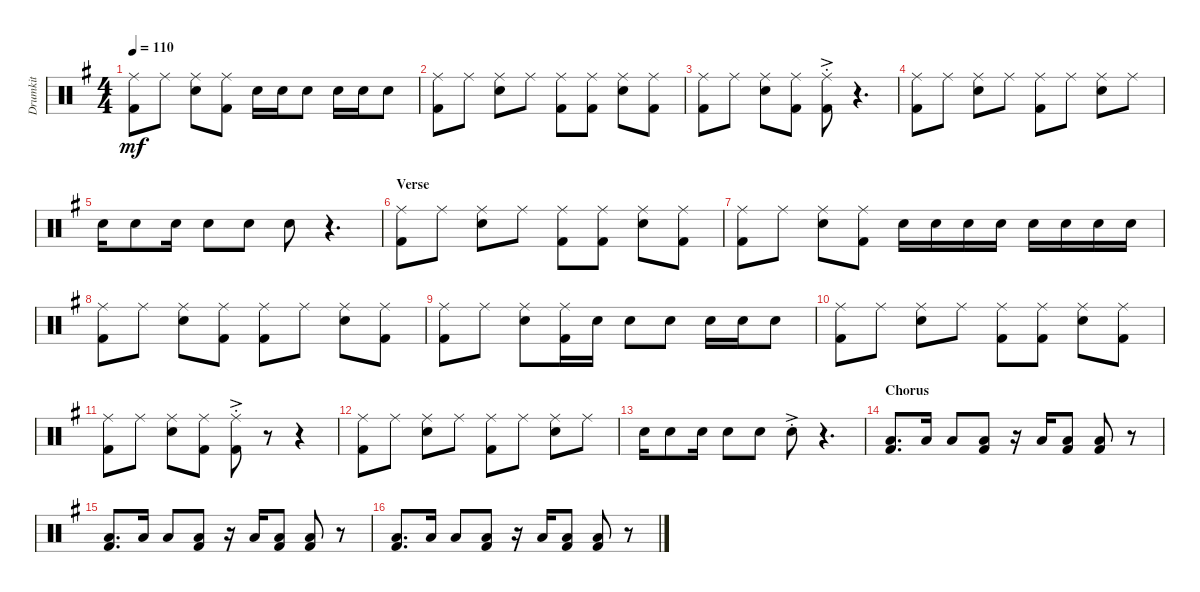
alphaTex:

\track ("Drumkit" "Drumkit") {instrument percussion}
\staff {score}
\articulation defaults
\ts (4 4)
\tempo 110
\clef neutral
\ks g
("Kick (hit) 2" "Ride (middle)").8{dy mf} "Ride (middle)".8 ("Snare (hit) 2" "Ride (middle)").8 ("Ride (middle)" "Kick (hit) 2").8 "Snare (hit) 2".16 "Snare (hit) 2".16 "Snare (hit) 2".8 "Snare (hit) 2".16 "Snare (hit) 2".16 "Snare (hit) 2".8 |
("Kick (hit) 2" "Ride (middle)").8 "Ride (middle)".8 ("Snare (hit) 2" "Ride (middle)").8 "Ride (middle)".8 ("Kick (hit) 2" "Ride (middle)").8 ("Kick (hit) 2" "Ride (middle)").8 ("Snare (hit) 2" "Ride (middle)").8 ("Ride (middle)" "Kick (hit) 2").8 |
("Kick (hit) 2" "Ride (middle)").8 "Ride (middle)".8 ("Snare (hit) 2" "Ride (middle)").8 ("Ride (middle)" "Kick (hit) 2").8 ("Kick (hit) 2"{ac st} "Ride (middle)").8 r.4{d} |
("Kick (hit) 2" "Ride (middle)").8 "Ride (middle)".8 ("Snare (hit) 2" "Ride (middle)").8 "Ride (middle)".8 ("Kick (hit) 2" "Ride (middle)").8 "Ride (middle)".8 ("Snare (hit) 2" "Ride (middle)").8 "Ride (middle)".8 |
"Snare (hit) 2".16 "Snare (hit) 2".8 "Snare (hit) 2".16 "Snare (hit) 2".8 "Snare (hit) 2".8 "Snare (hit) 2".8 r.4{d} |
\section ("" "Verse")
("Kick (hit) 2" "Ride (middle)").8 "Ride (middle)".8 ("Snare (hit) 2" "Ride (middle)").8 "Ride (middle)".8 ("Kick (hit) 2" "Ride (middle)").8 ("Kick (hit) 2" "Ride (middle)").8 ("Snare (hit) 2" "Ride (middle)").8 ("Ride (middle)" "Kick (hit) 2").8 |
("Kick (hit) 2" "Ride (middle)").8 "Ride (middle)".8 ("Snare (hit) 2" "Ride (middle)").8 ("Ride (middle)" "Kick (hit) 2").8 "Snare (hit) 2".16 "Snare (hit) 2".16 "Snare (hit) 2".16 "Snare (hit) 2".16 "Snare (hit) 2".16 "Snare (hit) 2".16 "Snare (hit) 2".16 "Snare (hit) 2".16 |
("Kick (hit) 2" "Ride (middle)").8 "Ride (middle)".8 ("Snare (hit) 2" "Ride (middle)").8 ("Ride (middle)" "Kick (hit) 2").8 ("Kick (hit) 2" "Ride (middle)").8 "Ride (middle)".8 ("Snare (hit) 2" "Ride (middle)").8 ("Kick (hit) 2" "Ride (middle)").8 |
("Kick (hit) 2" "Ride (middle)").8 "Ride (middle)".8 ("Snare (hit) 2" "Ride (middle)").8 ("Ride (middle)" "Kick (hit) 2").16 "Snare (hit) 2".16 "Snare (hit) 2".8 "Snare (hit) 2".8 "Snare (hit) 2".16 "Snare (hit) 2".16 "Snare (hit) 2".8 |
("Kick (hit) 2" "Ride (middle)").8 "Ride (middle)".8 ("Snare (hit) 2" "Ride (middle)").8 "Ride (middle)".8 ("Kick (hit) 2" "Ride (middle)").8 ("Kick (hit) 2" "Ride (middle)").8 ("Snare (hit) 2" "Ride (middle)").8 ("Ride (middle)" "Kick (hit) 2").8 |
("Kick (hit) 2" "Ride (middle)").8 "Ride (middle)".8 ("Snare (hit) 2" "Ride (middle)").8 ("Ride (middle)" "Kick (hit) 2").8 ("Kick (hit) 2"{ac st} "Ride (middle)").8 r.8 r.4 |
("Kick (hit) 2" "Ride (middle)").8 "Ride (middle)".8 ("Snare (hit) 2" "Ride (middle)").8 "Ride (middle)".8 ("Kick (hit) 2" "Ride (middle)").8 "Ride (middle)".8 ("Snare (hit) 2" "Ride (middle)").8 "Ride (middle)".8 |
"Snare (hit) 2".16 "Snare (hit) 2".8 "Snare (hit) 2".16 "Snare (hit) 2".8 "Snare (hit) 2".8 "Snare (hit) 2"{ac st}.8 r.4{d} |
\section ("" "Chorus")
("Kick (hit) 2" "Low Floor Tom (hit)").8{d} "Low Floor Tom (hit)".16 "Low Floor Tom (hit)".8 ("Low Floor Tom (hit)" "Kick (hit) 2").8 r.16 "Low Floor Tom (hit)".16 ("Kick (hit) 2" "Low Floor Tom (hit)").8 ("Low Floor Tom (hit)" "Kick (hit) 2").8 r.8 |
("Kick (hit) 2" "Low Floor Tom (hit)").8{d} "Low Floor Tom (hit)".16 "Low Floor Tom (hit)".8 ("Low Floor Tom (hit)" "Kick (hit) 2").8 r.16 "Low Floor Tom (hit)".16 ("Kick (hit) 2" "Low Floor Tom (hit)").8 ("Low Floor Tom (hit)" "Kick (hit) 2").8 r.8 |
("Kick (hit) 2" "Low Floor Tom (hit)").8{d} "Low Floor Tom (hit)".16 "Low Floor Tom (hit)".8 ("Low Floor Tom (hit)" "Kick (hit) 2").8 r.16 "Low Floor Tom (hit)".16 ("Kick (hit) 2" "Low Floor Tom (hit)").8 ("Low Floor Tom (hit)" "Kick (hit) 2").8 r.8
